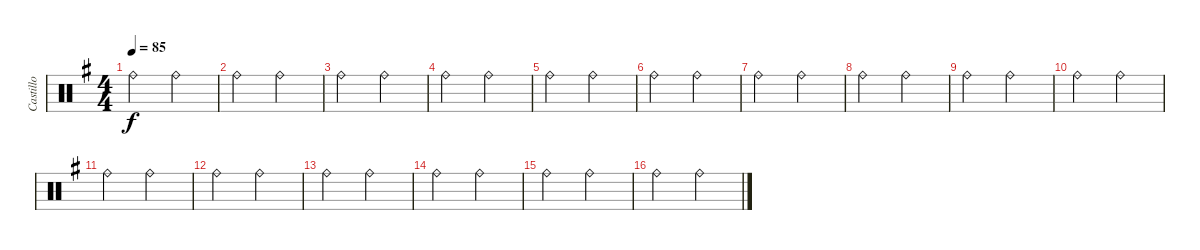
\track ("Castillo" "Castillo") {instrument percussion}
\staff {score}
\articulation defaults
\ts (4 4)
\tempo 85
\clef neutral
\ks g "Ride (bell)".2{dy f} "Ride (bell)".2
|
"Ride (bell)".2 "Ride (bell)".2 |
"Ride (bell)".2 "Ride (bell)".2 |
"Ride (bell)".2 "Ride (bell)".2 |
"Ride (bell)".2 "Ride (bell)".2 |
"Ride (bell)".2 "Ride (bell)".2 |
"Ride (bell)".2 "Ride (bell)".2 |
"Ride (bell)".2 "Ride (bell)".2 |
"Ride (bell)".2 "Ride (bell)".2 |
"Ride (bell)".2 "Ride (bell)".2 |
"Ride (bell)".2 "Ride (bell)".2 |
"Ride (bell)".2 "Ride (bell)".2 |
"Ride (bell)".2 "Ride (bell)".2 |
"Ride (bell)".2 "Ride (bell)".2 |
"Ride (bell)".2 "Ride (bell)".2 |
"Ride (bell)".2 "Ride (bell)".2
